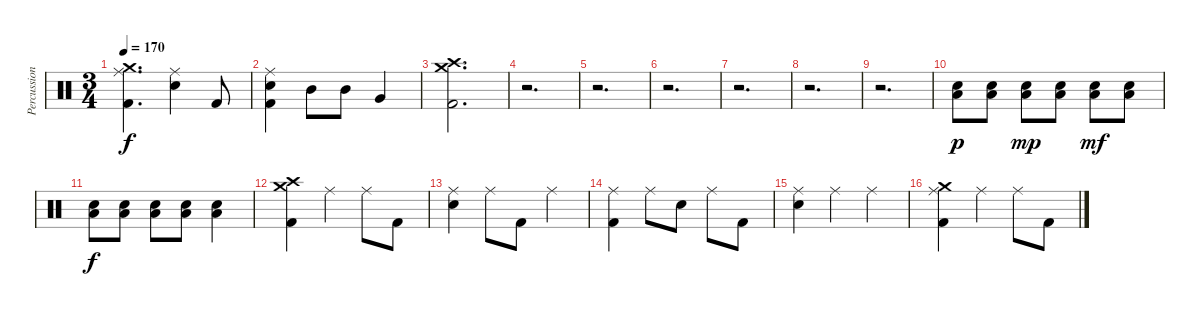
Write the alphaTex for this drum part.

\track ("Percussion" "Percussion") {instrument percussion}
\staff {score}
\articulation defaults
\ts (3 4)
\tempo 170
\clef neutral
\ks c
("Ride (middle)" "Crash medium (hit)" "Kick (hit) 2").4{d dy f} ("Ride (middle)" "Electric Snare (hit)").4 "Kick (hit) 2".8 |
("Ride (middle)" "Electric Snare (hit)" "Kick (hit) 2").4 "Mid Tom (hit)".8 "Mid Tom (hit)".8 "Very Low Tom (hit)".4 |
("Crash medium (hit)" "Crash high (hit)" "Kick (hit) 2").2{d} |
r.2{d} |
r.2{d} |
r.2{d} |
r.2{d} |
r.2{d} |
r.2{d} |
("Electric Snare (hit)" "Low Tom (hit)").8{dy p} ("Electric Snare (hit)" "Low Tom (hit)").8 ("Electric Snare (hit)" "Low Tom (hit)").8{dy mp} ("Electric Snare (hit)" "Low Tom (hit)").8 ("Electric Snare (hit)" "Low Tom (hit)").8{dy mf} ("Electric Snare (hit)" "Low Tom (hit)").8 |
("Electric Snare (hit)" "Low Tom (hit)").8{dy f} ("Electric Snare (hit)" "Low Tom (hit)").8 ("Electric Snare (hit)" "Low Tom (hit)").8 ("Electric Snare (hit)" "Low Tom (hit)").8 ("Electric Snare (hit)" "Low Tom (hit)").4 |
("Crash medium (hit)" "Crash high (hit)" "Kick (hit) 2").4 "Ride (middle)".4 "Ride (middle)".8 "Kick (hit) 2".8 |
("Ride (middle)" "Electric Snare (hit)").4 "Ride (middle)".8 "Kick (hit) 2".8 "Ride (middle)".4 |
("Ride (middle)" "Kick (hit) 2").4 "Ride (middle)".8 "Electric Snare (hit)".8 "Ride (middle)".8 "Kick (hit) 2".8 |
("Ride (middle)" "Electric Snare (hit)").4 "Ride (middle)".4 "Ride (middle)".4 |
("Ride (middle)" "Crash medium (hit)" "Kick (hit) 2").4 "Ride (middle)".4 "Ride (middle)".8 "Kick (hit) 2".8
